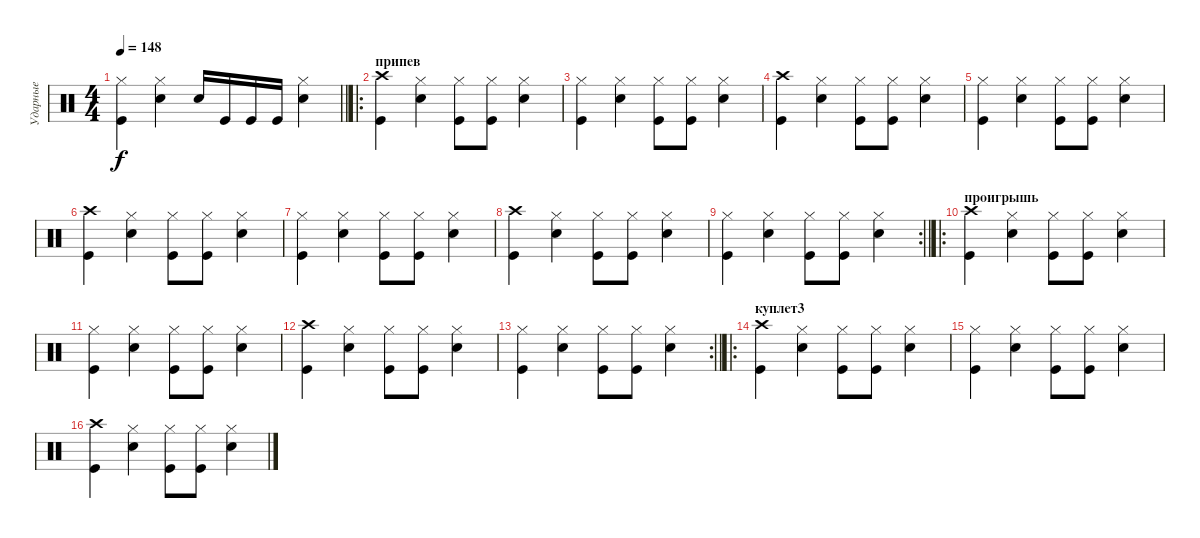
\track ("Ударные" "Ударные") {instrument percussion}
\staff {score}
\articulation defaults
\ts (4 4)
\tempo 148
\clef neutral
\barLineRight lightlight
\ks c
("Kick (hit)" "Hi-Hat (closed)").4{dy f} ("Snare (hit) 2" "Hi-Hat (closed)").4 "Snare (hit) 2".16 "Kick (hit)".16 "Kick (hit)".16 "Kick (hit)".16 ("Snare (hit) 2" "Hi-Hat (closed)").4 |
\ro
\section ("" "припев")
("Kick (hit)" "Crash high (hit)").4 ("Snare (hit) 2" "Hi-Hat (closed)").4 ("Kick (hit)" "Hi-Hat (closed)").8 ("Kick (hit)" "Hi-Hat (closed)").8 ("Snare (hit) 2" "Hi-Hat (closed)").4 |
("Kick (hit)" "Hi-Hat (closed)").4 ("Snare (hit) 2" "Hi-Hat (closed)").4 ("Kick (hit)" "Hi-Hat (closed)").8 ("Kick (hit)" "Hi-Hat (closed)").8 ("Snare (hit) 2" "Hi-Hat (closed)").4 |
("Kick (hit)" "Crash high (hit)").4 ("Snare (hit) 2" "Hi-Hat (closed)").4 ("Kick (hit)" "Hi-Hat (closed)").8 ("Kick (hit)" "Hi-Hat (closed)").8 ("Snare (hit) 2" "Hi-Hat (closed)").4 |
("Kick (hit)" "Hi-Hat (closed)").4 ("Snare (hit) 2" "Hi-Hat (closed)").4 ("Kick (hit)" "Hi-Hat (closed)").8 ("Kick (hit)" "Hi-Hat (closed)").8 ("Snare (hit) 2" "Hi-Hat (closed)").4 |
("Kick (hit)" "Crash high (hit)").4 ("Snare (hit) 2" "Hi-Hat (closed)").4 ("Kick (hit)" "Hi-Hat (closed)").8 ("Kick (hit)" "Hi-Hat (closed)").8 ("Snare (hit) 2" "Hi-Hat (closed)").4 |
("Kick (hit)" "Hi-Hat (closed)").4 ("Snare (hit) 2" "Hi-Hat (closed)").4 ("Kick (hit)" "Hi-Hat (closed)").8 ("Kick (hit)" "Hi-Hat (closed)").8 ("Snare (hit) 2" "Hi-Hat (closed)").4 |
("Kick (hit)" "Crash high (hit)").4 ("Snare (hit) 2" "Hi-Hat (closed)").4 ("Kick (hit)" "Hi-Hat (closed)").8 ("Kick (hit)" "Hi-Hat (closed)").8 ("Snare (hit) 2" "Hi-Hat (closed)").4 |
\rc 2
\barLineRight lightlight
("Kick (hit)" "Hi-Hat (closed)").4 ("Snare (hit) 2" "Hi-Hat (closed)").4 ("Kick (hit)" "Hi-Hat (closed)").8 ("Kick (hit)" "Hi-Hat (closed)").8 ("Snare (hit) 2" "Hi-Hat (closed)").4 |
\ro
\section ("" "проигрышь")
("Kick (hit)" "Crash high (hit)").4 ("Snare (hit) 2" "Hi-Hat (closed)").4 ("Kick (hit)" "Hi-Hat (closed)").8 ("Kick (hit)" "Hi-Hat (closed)").8 ("Snare (hit) 2" "Hi-Hat (closed)").4 |
("Kick (hit)" "Hi-Hat (closed)").4 ("Snare (hit) 2" "Hi-Hat (closed)").4 ("Kick (hit)" "Hi-Hat (closed)").8 ("Kick (hit)" "Hi-Hat (closed)").8 ("Snare (hit) 2" "Hi-Hat (closed)").4 |
("Kick (hit)" "Crash high (hit)").4 ("Snare (hit) 2" "Hi-Hat (closed)").4 ("Kick (hit)" "Hi-Hat (closed)").8 ("Kick (hit)" "Hi-Hat (closed)").8 ("Snare (hit) 2" "Hi-Hat (closed)").4 |
\rc 2
\barLineRight lightlight
("Kick (hit)" "Hi-Hat (closed)").4 ("Snare (hit) 2" "Hi-Hat (closed)").4 ("Kick (hit)" "Hi-Hat (closed)").8 ("Kick (hit)" "Hi-Hat (closed)").8 ("Snare (hit) 2" "Hi-Hat (closed)").4 |
\ro
\section ("" "куплет3")
("Kick (hit)" "Crash high (hit)").4 ("Snare (hit) 2" "Hi-Hat (closed)").4 ("Kick (hit)" "Hi-Hat (closed)").8 ("Kick (hit)" "Hi-Hat (closed)").8 ("Snare (hit) 2" "Hi-Hat (closed)").4 |
("Kick (hit)" "Hi-Hat (closed)").4 ("Snare (hit) 2" "Hi-Hat (closed)").4 ("Kick (hit)" "Hi-Hat (closed)").8 ("Kick (hit)" "Hi-Hat (closed)").8 ("Snare (hit) 2" "Hi-Hat (closed)").4 |
("Kick (hit)" "Crash high (hit)").4 ("Snare (hit) 2" "Hi-Hat (closed)").4 ("Kick (hit)" "Hi-Hat (closed)").8 ("Kick (hit)" "Hi-Hat (closed)").8 ("Snare (hit) 2" "Hi-Hat (closed)").4
